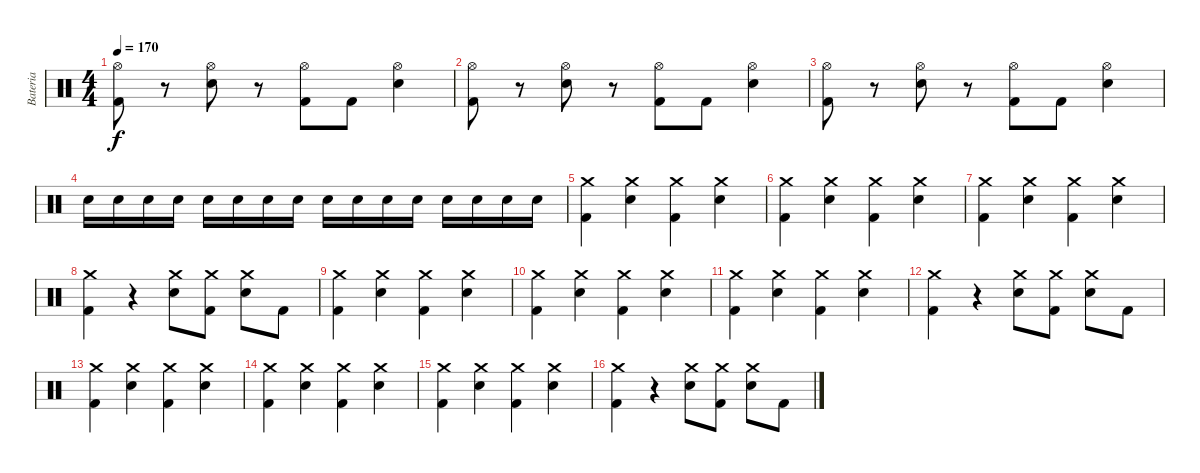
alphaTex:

\track ("Bateria" "Bateria") {instrument percussion}
\staff {score}
\articulation defaults
\ts (4 4)
\tempo 170
\clef neutral
\ks c
("Hi-Hat (open)" "Kick (hit) 2").8{dy f} r.8 ("Hi-Hat (open)" "Electric Snare (hit)").8 r.8 ("Hi-Hat (open)" "Kick (hit) 2").8 "Kick (hit) 2".8 ("Hi-Hat (open)" "Electric Snare (hit)").4 |
("Hi-Hat (open)" "Kick (hit) 2").8 r.8 ("Hi-Hat (open)" "Electric Snare (hit)").8 r.8 ("Hi-Hat (open)" "Kick (hit) 2").8 "Kick (hit) 2".8 ("Hi-Hat (open)" "Electric Snare (hit)").4 |
("Hi-Hat (open)" "Kick (hit) 2").8 r.8 ("Hi-Hat (open)" "Electric Snare (hit)").8 r.8 ("Hi-Hat (open)" "Kick (hit) 2").8 "Kick (hit) 2".8 ("Hi-Hat (open)" "Electric Snare (hit)").4 |
"Electric Snare (hit)".16 "Electric Snare (hit)".16 "Electric Snare (hit)".16 "Electric Snare (hit)".16 "Electric Snare (hit)".16 "Electric Snare (hit)".16 "Electric Snare (hit)".16 "Electric Snare (hit)".16 "Electric Snare (hit)".16 "Electric Snare (hit)".16 "Electric Snare (hit)".16 "Electric Snare (hit)".16 "Electric Snare (hit)".16 "Electric Snare (hit)".16 "Electric Snare (hit)".16 "Electric Snare (hit)".16 |
("Crash medium (hit)" "Kick (hit) 2").4 ("Crash medium (hit)" "Electric Snare (hit)").4 ("Crash medium (hit)" "Kick (hit) 2").4 ("Crash medium (hit)" "Electric Snare (hit)").4 |
("Crash medium (hit)" "Kick (hit) 2").4 ("Crash medium (hit)" "Electric Snare (hit)").4 ("Crash medium (hit)" "Kick (hit) 2").4 ("Crash medium (hit)" "Electric Snare (hit)").4 |
("Crash medium (hit)" "Kick (hit) 2").4 ("Crash medium (hit)" "Electric Snare (hit)").4 ("Crash medium (hit)" "Kick (hit) 2").4 ("Crash medium (hit)" "Electric Snare (hit)").4 |
("Crash medium (hit)" "Kick (hit) 2").4 r.4 ("Crash medium (hit)" "Electric Snare (hit)").8 ("Crash medium (hit)" "Kick (hit) 2").8 ("Crash medium (hit)" "Electric Snare (hit)").8 "Kick (hit) 2".8 |
("Crash medium (hit)" "Kick (hit) 2").4 ("Crash medium (hit)" "Electric Snare (hit)").4 ("Crash medium (hit)" "Kick (hit) 2").4 ("Crash medium (hit)" "Electric Snare (hit)").4 |
("Crash medium (hit)" "Kick (hit) 2").4 ("Crash medium (hit)" "Electric Snare (hit)").4 ("Crash medium (hit)" "Kick (hit) 2").4 ("Crash medium (hit)" "Electric Snare (hit)").4 |
("Crash medium (hit)" "Kick (hit) 2").4 ("Crash medium (hit)" "Electric Snare (hit)").4 ("Crash medium (hit)" "Kick (hit) 2").4 ("Crash medium (hit)" "Electric Snare (hit)").4 |
("Crash medium (hit)" "Kick (hit) 2").4 r.4 ("Crash medium (hit)" "Electric Snare (hit)").8 ("Crash medium (hit)" "Kick (hit) 2").8 ("Crash medium (hit)" "Electric Snare (hit)").8 "Kick (hit) 2".8 |
("Crash medium (hit)" "Kick (hit) 2").4 ("Crash medium (hit)" "Electric Snare (hit)").4 ("Crash medium (hit)" "Kick (hit) 2").4 ("Crash medium (hit)" "Electric Snare (hit)").4 |
("Crash medium (hit)" "Kick (hit) 2").4 ("Crash medium (hit)" "Electric Snare (hit)").4 ("Crash medium (hit)" "Kick (hit) 2").4 ("Crash medium (hit)" "Electric Snare (hit)").4 |
("Crash medium (hit)" "Kick (hit) 2").4 ("Crash medium (hit)" "Electric Snare (hit)").4 ("Crash medium (hit)" "Kick (hit) 2").4 ("Crash medium (hit)" "Electric Snare (hit)").4 |
("Crash medium (hit)" "Kick (hit) 2").4 r.4 ("Crash medium (hit)" "Electric Snare (hit)").8 ("Crash medium (hit)" "Kick (hit) 2").8 ("Crash medium (hit)" "Electric Snare (hit)").8 "Kick (hit) 2".8
